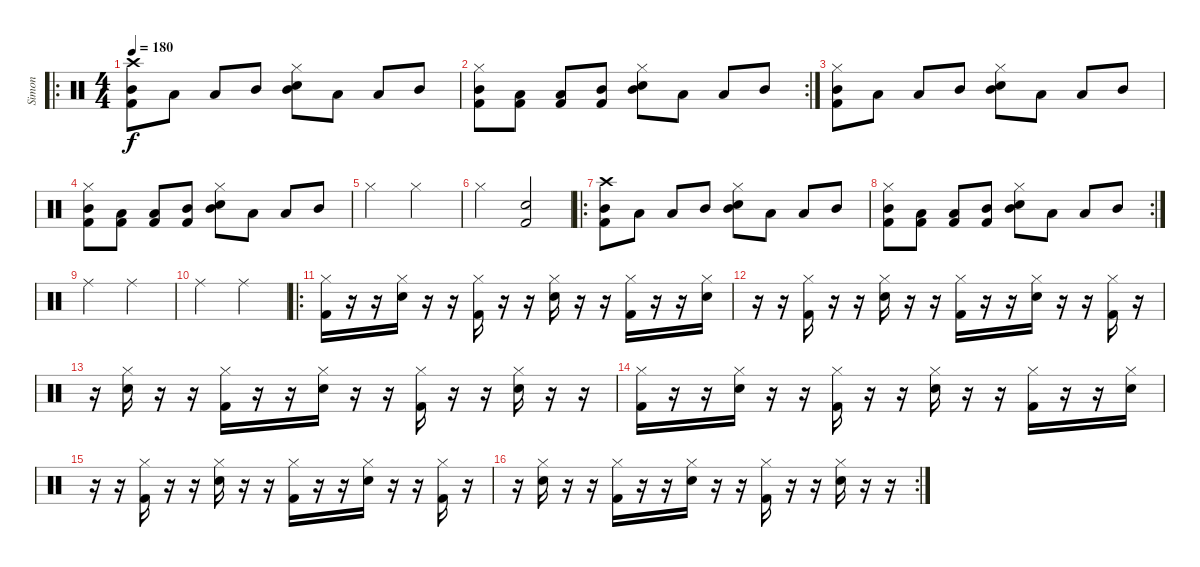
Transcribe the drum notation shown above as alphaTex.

\track ("Simon" "Simon") {instrument percussion}
\staff {score}
\articulation defaults
\ro
\ts (4 4)
\tempo 180
\clef neutral
\ks c
("Crash high (hit)" "Mid Tom (hit)" "Kick (hit) 2").8{dy f} "Low Tom (hit)".8 "Low Tom (hit)".8 "Mid Tom (hit)".8 ("Hi-Hat (closed)" "Mid Tom (hit)" "Snare (hit) 2").8 "Low Tom (hit)".8 "Low Tom (hit)".8 "Mid Tom (hit)".8 |
\rc 2
("Hi-Hat (closed)" "Mid Tom (hit)" "Kick (hit) 2").8 ("Low Tom (hit)" "Kick (hit) 2").8 ("Low Tom (hit)" "Kick (hit) 2").8 ("Mid Tom (hit)" "Kick (hit) 2").8 ("Hi-Hat (closed)" "Mid Tom (hit)" "Snare (hit) 2").8 "Low Tom (hit)".8 "Low Tom (hit)".8 "Mid Tom (hit)".8 |
("Hi-Hat (closed)" "Mid Tom (hit)" "Kick (hit) 2").8 "Low Tom (hit)".8 "Low Tom (hit)".8 "Mid Tom (hit)".8 ("Hi-Hat (closed)" "Mid Tom (hit)" "Snare (hit) 2").8 "Low Tom (hit)".8 "Low Tom (hit)".8 "Mid Tom (hit)".8 |
("Hi-Hat (closed)" "Mid Tom (hit)" "Kick (hit) 2").8 ("Low Tom (hit)" "Kick (hit) 2").8 ("Low Tom (hit)" "Kick (hit) 2").8 ("Mid Tom (hit)" "Kick (hit) 2").8 ("Hi-Hat (closed)" "Mid Tom (hit)" "Snare (hit) 2").8 "Low Tom (hit)".8 "Low Tom (hit)".8 "Mid Tom (hit)".8 |
"Hi-Hat (closed)".2 "Hi-Hat (closed)".2 |
"Hi-Hat (closed)".2 ("Snare (hit) 2" "Kick (hit) 2").2 |
\ro
("Crash high (hit)" "Mid Tom (hit)" "Kick (hit) 2").8 "Low Tom (hit)".8 "Low Tom (hit)".8 "Mid Tom (hit)".8 ("Hi-Hat (closed)" "Mid Tom (hit)" "Snare (hit) 2").8 "Low Tom (hit)".8 "Low Tom (hit)".8 "Mid Tom (hit)".8 |
\rc 2
("Hi-Hat (closed)" "Mid Tom (hit)" "Kick (hit) 2").8 ("Low Tom (hit)" "Kick (hit) 2").8 ("Low Tom (hit)" "Kick (hit) 2").8 ("Mid Tom (hit)" "Kick (hit) 2").8 ("Hi-Hat (closed)" "Mid Tom (hit)" "Snare (hit) 2").8 "Low Tom (hit)".8 "Low Tom (hit)".8 "Mid Tom (hit)".8 |
"Ride (middle)".2 "Ride (middle)".2 |
"Ride (middle)".2 "Ride (middle)".2 |
\ro
("Hi-Hat (closed)" "Kick (hit) 2").16 r.16 r.16 ("Hi-Hat (closed)" "Snare (hit) 2").16 r.16 r.16 ("Hi-Hat (closed)" "Kick (hit) 2").16 r.16 r.16 ("Hi-Hat (closed)" "Snare (hit) 2").16 r.16 r.16 ("Hi-Hat (closed)" "Kick (hit) 2").16 r.16 r.16 ("Hi-Hat (closed)" "Snare (hit) 2").16 |
r.16 r.16 ("Hi-Hat (closed)" "Kick (hit) 2").16 r.16 r.16 ("Hi-Hat (closed)" "Snare (hit) 2").16 r.16 r.16 ("Hi-Hat (closed)" "Kick (hit) 2").16 r.16 r.16 ("Hi-Hat (closed)" "Snare (hit) 2").16 r.16 r.16 ("Hi-Hat (closed)" "Kick (hit) 2").16 r.16 |
r.16 ("Hi-Hat (closed)" "Snare (hit) 2").16 r.16 r.16 ("Hi-Hat (closed)" "Kick (hit) 2").16 r.16 r.16 ("Hi-Hat (closed)" "Snare (hit) 2").16 r.16 r.16 ("Hi-Hat (closed)" "Kick (hit) 2").16 r.16 r.16 ("Hi-Hat (closed)" "Snare (hit) 2").16 r.16 r.16 |
("Hi-Hat (closed)" "Kick (hit) 2").16 r.16 r.16 ("Hi-Hat (closed)" "Snare (hit) 2").16 r.16 r.16 ("Hi-Hat (closed)" "Kick (hit) 2").16 r.16 r.16 ("Hi-Hat (closed)" "Snare (hit) 2").16 r.16 r.16 ("Hi-Hat (closed)" "Kick (hit) 2").16 r.16 r.16 ("Hi-Hat (closed)" "Snare (hit) 2").16 |
r.16 r.16 ("Hi-Hat (closed)" "Kick (hit) 2").16 r.16 r.16 ("Hi-Hat (closed)" "Snare (hit) 2").16 r.16 r.16 ("Hi-Hat (closed)" "Kick (hit) 2").16 r.16 r.16 ("Hi-Hat (closed)" "Snare (hit) 2").16 r.16 r.16 ("Hi-Hat (closed)" "Kick (hit) 2").16 r.16 |
\rc 2
r.16 ("Hi-Hat (closed)" "Snare (hit) 2").16 r.16 r.16 ("Hi-Hat (closed)" "Kick (hit) 2").16 r.16 r.16 ("Hi-Hat (closed)" "Snare (hit) 2").16 r.16 r.16 ("Hi-Hat (closed)" "Kick (hit) 2").16 r.16 r.16 ("Hi-Hat (closed)" "Snare (hit) 2").16 r.16 r.16
